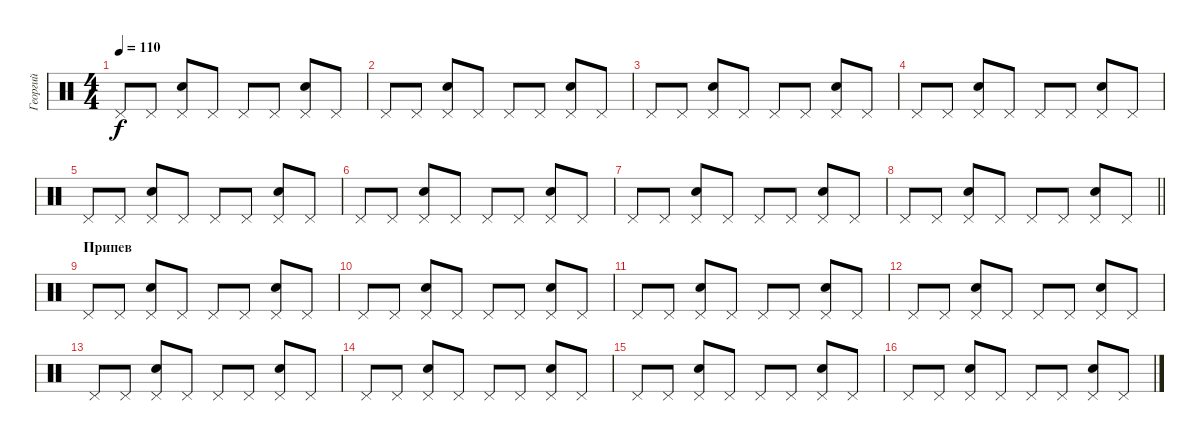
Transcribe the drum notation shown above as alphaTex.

\track ("Георгий" "Георгий") {instrument percussion}
\staff {score}
\articulation defaults
\ts (4 4)
\tempo 110
\clef neutral
\ks c "Pedal Hi-Hat (hit)".8{dy f} "Pedal Hi-Hat (hit)".8
("Pedal Hi-Hat (hit)" "Snare (hit) 2").8 "Pedal Hi-Hat (hit)".8 "Pedal Hi-Hat (hit)".8 "Pedal Hi-Hat (hit)".8 ("Pedal Hi-Hat (hit)" "Snare (hit) 2").8 "Pedal Hi-Hat (hit)".8 |
"Pedal Hi-Hat (hit)".8 "Pedal Hi-Hat (hit)".8 ("Pedal Hi-Hat (hit)" "Snare (hit) 2").8 "Pedal Hi-Hat (hit)".8 "Pedal Hi-Hat (hit)".8 "Pedal Hi-Hat (hit)".8 ("Pedal Hi-Hat (hit)" "Snare (hit) 2").8 "Pedal Hi-Hat (hit)".8 |
"Pedal Hi-Hat (hit)".8 "Pedal Hi-Hat (hit)".8 ("Pedal Hi-Hat (hit)" "Snare (hit) 2").8 "Pedal Hi-Hat (hit)".8 "Pedal Hi-Hat (hit)".8 "Pedal Hi-Hat (hit)".8 ("Pedal Hi-Hat (hit)" "Snare (hit) 2").8 "Pedal Hi-Hat (hit)".8 |
"Pedal Hi-Hat (hit)".8 "Pedal Hi-Hat (hit)".8 ("Pedal Hi-Hat (hit)" "Snare (hit) 2").8 "Pedal Hi-Hat (hit)".8 "Pedal Hi-Hat (hit)".8 "Pedal Hi-Hat (hit)".8 ("Pedal Hi-Hat (hit)" "Snare (hit) 2").8 "Pedal Hi-Hat (hit)".8 |
"Pedal Hi-Hat (hit)".8 "Pedal Hi-Hat (hit)".8 ("Pedal Hi-Hat (hit)" "Snare (hit) 2").8 "Pedal Hi-Hat (hit)".8 "Pedal Hi-Hat (hit)".8 "Pedal Hi-Hat (hit)".8 ("Pedal Hi-Hat (hit)" "Snare (hit) 2").8 "Pedal Hi-Hat (hit)".8 |
"Pedal Hi-Hat (hit)".8 "Pedal Hi-Hat (hit)".8 ("Pedal Hi-Hat (hit)" "Snare (hit) 2").8 "Pedal Hi-Hat (hit)".8 "Pedal Hi-Hat (hit)".8 "Pedal Hi-Hat (hit)".8 ("Pedal Hi-Hat (hit)" "Snare (hit) 2").8 "Pedal Hi-Hat (hit)".8 |
"Pedal Hi-Hat (hit)".8 "Pedal Hi-Hat (hit)".8 ("Pedal Hi-Hat (hit)" "Snare (hit) 2").8 "Pedal Hi-Hat (hit)".8 "Pedal Hi-Hat (hit)".8 "Pedal Hi-Hat (hit)".8 ("Pedal Hi-Hat (hit)" "Snare (hit) 2").8 "Pedal Hi-Hat (hit)".8 |
\barLineRight lightlight "Pedal Hi-Hat (hit)".8 "Pedal Hi-Hat (hit)".8
("Pedal Hi-Hat (hit)" "Snare (hit) 2").8 "Pedal Hi-Hat (hit)".8 "Pedal Hi-Hat (hit)".8 "Pedal Hi-Hat (hit)".8 ("Pedal Hi-Hat (hit)" "Snare (hit) 2").8 "Pedal Hi-Hat (hit)".8 |
\section ("" "Припев")
"Pedal Hi-Hat (hit)".8 "Pedal Hi-Hat (hit)".8 ("Pedal Hi-Hat (hit)" "Snare (hit) 2").8 "Pedal Hi-Hat (hit)".8 "Pedal Hi-Hat (hit)".8 "Pedal Hi-Hat (hit)".8 ("Pedal Hi-Hat (hit)" "Snare (hit) 2").8 "Pedal Hi-Hat (hit)".8 |
"Pedal Hi-Hat (hit)".8 "Pedal Hi-Hat (hit)".8 ("Pedal Hi-Hat (hit)" "Snare (hit) 2").8 "Pedal Hi-Hat (hit)".8 "Pedal Hi-Hat (hit)".8 "Pedal Hi-Hat (hit)".8 ("Pedal Hi-Hat (hit)" "Snare (hit) 2").8 "Pedal Hi-Hat (hit)".8 |
"Pedal Hi-Hat (hit)".8 "Pedal Hi-Hat (hit)".8 ("Pedal Hi-Hat (hit)" "Snare (hit) 2").8 "Pedal Hi-Hat (hit)".8 "Pedal Hi-Hat (hit)".8 "Pedal Hi-Hat (hit)".8 ("Pedal Hi-Hat (hit)" "Snare (hit) 2").8 "Pedal Hi-Hat (hit)".8 |
"Pedal Hi-Hat (hit)".8 "Pedal Hi-Hat (hit)".8 ("Pedal Hi-Hat (hit)" "Snare (hit) 2").8 "Pedal Hi-Hat (hit)".8 "Pedal Hi-Hat (hit)".8 "Pedal Hi-Hat (hit)".8 ("Pedal Hi-Hat (hit)" "Snare (hit) 2").8 "Pedal Hi-Hat (hit)".8 |
"Pedal Hi-Hat (hit)".8 "Pedal Hi-Hat (hit)".8 ("Pedal Hi-Hat (hit)" "Snare (hit) 2").8 "Pedal Hi-Hat (hit)".8 "Pedal Hi-Hat (hit)".8 "Pedal Hi-Hat (hit)".8 ("Pedal Hi-Hat (hit)" "Snare (hit) 2").8 "Pedal Hi-Hat (hit)".8 |
"Pedal Hi-Hat (hit)".8 "Pedal Hi-Hat (hit)".8 ("Pedal Hi-Hat (hit)" "Snare (hit) 2").8 "Pedal Hi-Hat (hit)".8 "Pedal Hi-Hat (hit)".8 "Pedal Hi-Hat (hit)".8 ("Pedal Hi-Hat (hit)" "Snare (hit) 2").8 "Pedal Hi-Hat (hit)".8 |
"Pedal Hi-Hat (hit)".8 "Pedal Hi-Hat (hit)".8 ("Pedal Hi-Hat (hit)" "Snare (hit) 2").8 "Pedal Hi-Hat (hit)".8 "Pedal Hi-Hat (hit)".8 "Pedal Hi-Hat (hit)".8 ("Pedal Hi-Hat (hit)" "Snare (hit) 2").8 "Pedal Hi-Hat (hit)".8 |
"Pedal Hi-Hat (hit)".8 "Pedal Hi-Hat (hit)".8 ("Pedal Hi-Hat (hit)" "Snare (hit) 2").8 "Pedal Hi-Hat (hit)".8 "Pedal Hi-Hat (hit)".8 "Pedal Hi-Hat (hit)".8 ("Pedal Hi-Hat (hit)" "Snare (hit) 2").8 "Pedal Hi-Hat (hit)".8
